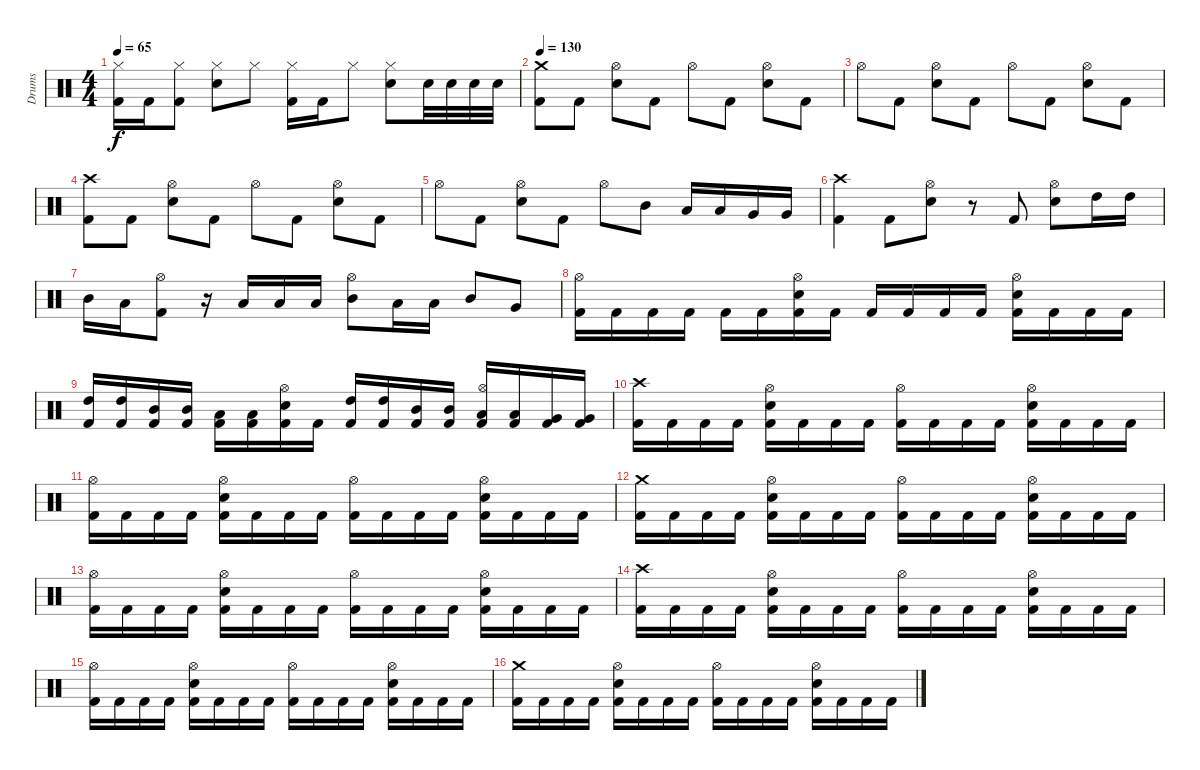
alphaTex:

\track ("Drums" "Drums") {instrument percussion}
\staff {score}
\articulation defaults
\ts (4 4)
\tempo 65
\clef neutral
\ks c
("Hi-Hat (closed)" "Kick (hit) 2").16{dy f} "Kick (hit) 2".16 ("Hi-Hat (closed)" "Kick (hit) 2").8 ("Hi-Hat (closed)" "Electric Snare (hit)").8 "Hi-Hat (closed)".8 ("Hi-Hat (closed)" "Kick (hit) 2").16 "Kick (hit) 2".16 "Hi-Hat (closed)".8 ("Hi-Hat (closed)" "Electric Snare (hit)").8 "Electric Snare (hit)".32 "Electric Snare (hit)".32 "Electric Snare (hit)".32 "Electric Snare (hit)".32 |
\tempo 130
("Crash medium (hit)" "Kick (hit) 2").8 "Kick (hit) 2".8 ("Hi-Hat (open)" "Electric Snare (hit)").8 "Kick (hit) 2".8 "Hi-Hat (open)".8 "Kick (hit) 2".8 ("Hi-Hat (open)" "Electric Snare (hit)").8 "Kick (hit) 2".8 |
"Hi-Hat (open)".8 "Kick (hit) 2".8 ("Hi-Hat (open)" "Electric Snare (hit)").8 "Kick (hit) 2".8 "Hi-Hat (open)".8 "Kick (hit) 2".8 ("Hi-Hat (open)" "Electric Snare (hit)").8 "Kick (hit) 2".8 |
("Crash high (hit)" "Kick (hit) 2").8 "Kick (hit) 2".8 ("Hi-Hat (open)" "Electric Snare (hit)").8 "Kick (hit) 2".8 "Hi-Hat (open)".8 "Kick (hit) 2".8 ("Hi-Hat (open)" "Electric Snare (hit)").8 "Kick (hit) 2".8 |
"Hi-Hat (open)".8 "Kick (hit) 2".8 ("Hi-Hat (open)" "Electric Snare (hit)").8 "Kick (hit) 2".8 "Hi-Hat (open)".8 "Mid Tom (hit)".8 "Low Tom (hit)".16 "Low Tom (hit)".16 "Very Low Tom (hit)".16 "Very Low Tom (hit)".16 |
("Crash high (hit)" "Kick (hit) 2").4 "Kick (hit) 2".8 ("Hi-Hat (open)" "Electric Snare (hit)").8 r.8 "Kick (hit) 2".8 ("Hi-Hat (open)" "Electric Snare (hit)").8 "High Tom (hit)".16 "High Tom (hit)".16 |
"Mid Tom (hit)".16 "Low Tom (hit)".16 ("Hi-Hat (open)" "Kick (hit) 2").8 r.16 "Low Tom (hit)".16 "Low Tom (hit)".16 "Low Tom (hit)".16 ("Hi-Hat (open)" "Mid Tom (hit)").8 "Low Tom (hit)".16 "Low Tom (hit)".16 "Mid Tom (hit)".8 "Very Low Tom (hit)".8 |
("Hi-Hat (open)" "Kick (hit) 2").16 "Kick (hit) 2".16 "Kick (hit) 2".16 "Kick (hit) 2".16 "Kick (hit) 2".16 "Kick (hit) 2".16 ("Hi-Hat (open)" "Electric Snare (hit)" "Kick (hit) 2").16 "Kick (hit) 2".16 "Kick (hit) 2".16 "Kick (hit) 2".16 "Kick (hit) 2".16 "Kick (hit) 2".16 ("Hi-Hat (open)" "Electric Snare (hit)" "Kick (hit) 2").16 "Kick (hit) 2".16 "Kick (hit) 2".16 "Kick (hit) 2".16 |
("High Tom (hit)" "Kick (hit) 2").16 ("High Tom (hit)" "Kick (hit) 2").16 ("Mid Tom (hit)" "Kick (hit) 2").16 ("Mid Tom (hit)" "Kick (hit) 2").16 ("Low Tom (hit)" "Kick (hit) 2").16 ("Low Tom (hit)" "Kick (hit) 2").16 ("Hi-Hat (open)" "Electric Snare (hit)" "Kick (hit) 2").16 "Kick (hit) 2".16 ("High Tom (hit)" "Kick (hit) 2").16 ("High Tom (hit)" "Kick (hit) 2").16 ("Mid Tom (hit)" "Kick (hit) 2").16 ("Mid Tom (hit)" "Kick (hit) 2").16 ("Hi-Hat (open)" "Low Tom (hit)" "Kick (hit) 2").16 ("Low Tom (hit)" "Kick (hit) 2").16 ("Very Low Tom (hit)" "Kick (hit) 2").16 ("Very Low Tom (hit)" "Kick (hit) 2").16 |
("Crash high (hit)" "Kick (hit) 2").16 "Kick (hit) 2".16 "Kick (hit) 2".16 "Kick (hit) 2".16 ("Hi-Hat (open)" "Electric Snare (hit)" "Kick (hit) 2").16 "Kick (hit) 2".16 "Kick (hit) 2".16 "Kick (hit) 2".16 ("Hi-Hat (open)" "Kick (hit) 2").16 "Kick (hit) 2".16 "Kick (hit) 2".16 "Kick (hit) 2".16 ("Hi-Hat (open)" "Electric Snare (hit)" "Kick (hit) 2").16 "Kick (hit) 2".16 "Kick (hit) 2".16 "Kick (hit) 2".16 |
("Hi-Hat (open)" "Kick (hit) 2").16 "Kick (hit) 2".16 "Kick (hit) 2".16 "Kick (hit) 2".16 ("Hi-Hat (open)" "Electric Snare (hit)" "Kick (hit) 2").16 "Kick (hit) 2".16 "Kick (hit) 2".16 "Kick (hit) 2".16 ("Hi-Hat (open)" "Kick (hit) 2").16 "Kick (hit) 2".16 "Kick (hit) 2".16 "Kick (hit) 2".16 ("Hi-Hat (open)" "Electric Snare (hit)" "Kick (hit) 2").16 "Kick (hit) 2".16 "Kick (hit) 2".16 "Kick (hit) 2".16 |
("Crash medium (hit)" "Kick (hit) 2").16 "Kick (hit) 2".16 "Kick (hit) 2".16 "Kick (hit) 2".16 ("Hi-Hat (open)" "Electric Snare (hit)" "Kick (hit) 2").16 "Kick (hit) 2".16 "Kick (hit) 2".16 "Kick (hit) 2".16 ("Hi-Hat (open)" "Kick (hit) 2").16 "Kick (hit) 2".16 "Kick (hit) 2".16 "Kick (hit) 2".16 ("Hi-Hat (open)" "Electric Snare (hit)" "Kick (hit) 2").16 "Kick (hit) 2".16 "Kick (hit) 2".16 "Kick (hit) 2".16 |
("Hi-Hat (open)" "Kick (hit) 2").16 "Kick (hit) 2".16 "Kick (hit) 2".16 "Kick (hit) 2".16 ("Hi-Hat (open)" "Electric Snare (hit)" "Kick (hit) 2").16 "Kick (hit) 2".16 "Kick (hit) 2".16 "Kick (hit) 2".16 ("Hi-Hat (open)" "Kick (hit) 2").16 "Kick (hit) 2".16 "Kick (hit) 2".16 "Kick (hit) 2".16 ("Hi-Hat (open)" "Electric Snare (hit)" "Kick (hit) 2").16 "Kick (hit) 2".16 "Kick (hit) 2".16 "Kick (hit) 2".16 |
("Crash high (hit)" "Kick (hit) 2").16 "Kick (hit) 2".16 "Kick (hit) 2".16 "Kick (hit) 2".16 ("Hi-Hat (open)" "Electric Snare (hit)" "Kick (hit) 2").16 "Kick (hit) 2".16 "Kick (hit) 2".16 "Kick (hit) 2".16 ("Hi-Hat (open)" "Kick (hit) 2").16 "Kick (hit) 2".16 "Kick (hit) 2".16 "Kick (hit) 2".16 ("Hi-Hat (open)" "Electric Snare (hit)" "Kick (hit) 2").16 "Kick (hit) 2".16 "Kick (hit) 2".16 "Kick (hit) 2".16 |
("Hi-Hat (open)" "Kick (hit) 2").16 "Kick (hit) 2".16 "Kick (hit) 2".16 "Kick (hit) 2".16 ("Hi-Hat (open)" "Electric Snare (hit)" "Kick (hit) 2").16 "Kick (hit) 2".16 "Kick (hit) 2".16 "Kick (hit) 2".16 ("Hi-Hat (open)" "Kick (hit) 2").16 "Kick (hit) 2".16 "Kick (hit) 2".16 "Kick (hit) 2".16 ("Hi-Hat (open)" "Electric Snare (hit)" "Kick (hit) 2").16 "Kick (hit) 2".16 "Kick (hit) 2".16 "Kick (hit) 2".16 |
("Crash medium (hit)" "Kick (hit) 2").16 "Kick (hit) 2".16 "Kick (hit) 2".16 "Kick (hit) 2".16 ("Hi-Hat (open)" "Electric Snare (hit)" "Kick (hit) 2").16 "Kick (hit) 2".16 "Kick (hit) 2".16 "Kick (hit) 2".16 ("Hi-Hat (open)" "Kick (hit) 2").16 "Kick (hit) 2".16 "Kick (hit) 2".16 "Kick (hit) 2".16 ("Hi-Hat (open)" "Electric Snare (hit)" "Kick (hit) 2").16 "Kick (hit) 2".16 "Kick (hit) 2".16 "Kick (hit) 2".16
